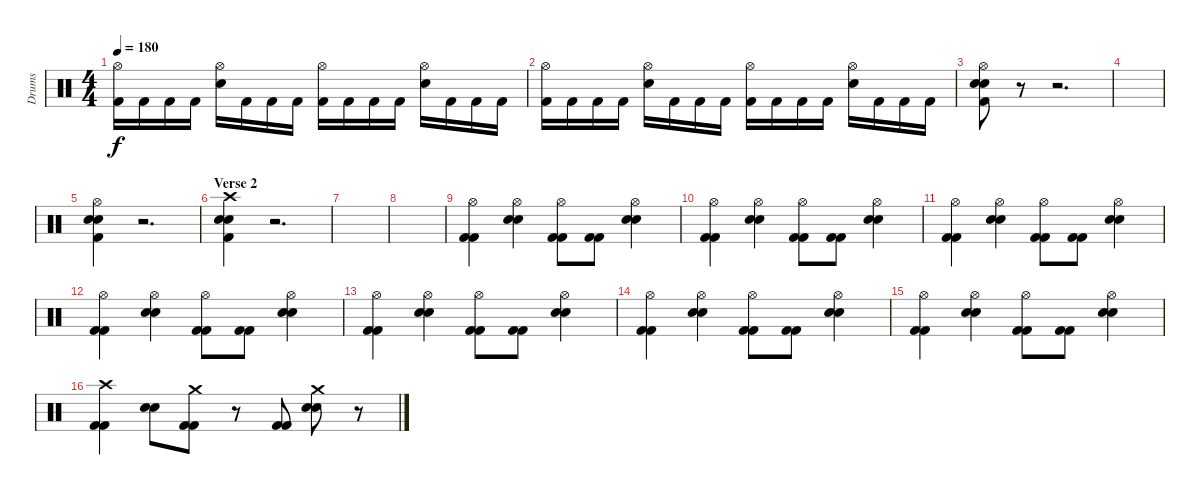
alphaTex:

\track ("Drums" "Drums") {instrument percussion}
\staff {score}
\articulation defaults
\ts (4 4)
\tempo 180
\clef neutral
\ks c
("Hi-Hat (open)" "Kick (hit) 2").16{dy f} "Kick (hit) 2".16 "Kick (hit) 2".16 "Kick (hit) 2".16 ("Hi-Hat (open)" "Snare (hit) 2").16 "Kick (hit) 2".16 "Kick (hit) 2".16 "Kick (hit) 2".16 ("Hi-Hat (open)" "Kick (hit) 2").16 "Kick (hit) 2".16 "Kick (hit) 2".16 "Kick (hit) 2".16 ("Hi-Hat (open)" "Snare (hit) 2").16 "Kick (hit) 2".16 "Kick (hit) 2".16 "Kick (hit) 2".16 |
("Hi-Hat (open)" "Kick (hit) 2").16 "Kick (hit) 2".16 "Kick (hit) 2".16 "Kick (hit) 2".16 ("Hi-Hat (open)" "Snare (hit) 2").16 "Kick (hit) 2".16 "Kick (hit) 2".16 "Kick (hit) 2".16 ("Hi-Hat (open)" "Kick (hit) 2").16 "Kick (hit) 2".16 "Kick (hit) 2".16 "Kick (hit) 2".16 ("Hi-Hat (open)" "Snare (hit) 2").16 "Kick (hit) 2".16 "Kick (hit) 2".16 "Kick (hit) 2".16 |
("Hi-Hat (open)" "Snare (hit) 2" "Snare (hit) 2" "Kick (hit) 2").8 r.8 r.2{d} |
|
("Hi-Hat (open)" "Snare (hit) 2" "Snare (hit) 2" "Kick (hit) 2").4 r.2{d} |
\section ("" "Verse 2")
("Crash high (hit)" "Snare (hit) 2" "Snare (hit) 2" "Kick (hit) 2").4 r.2{d} |
|
|
("Hi-Hat (open)" "Kick (hit) 2" "Kick (hit) 2").4 ("Hi-Hat (open)" "Snare (hit) 2" "Snare (hit) 2").4 ("Hi-Hat (open)" "Kick (hit) 2" "Kick (hit) 2").8 ("Kick (hit) 2" "Kick (hit) 2").8 ("Hi-Hat (open)" "Snare (hit) 2" "Snare (hit) 2").4 |
("Hi-Hat (open)" "Kick (hit) 2" "Kick (hit) 2").4 ("Hi-Hat (open)" "Snare (hit) 2" "Snare (hit) 2").4 ("Hi-Hat (open)" "Kick (hit) 2" "Kick (hit) 2").8 ("Kick (hit) 2" "Kick (hit) 2").8 ("Hi-Hat (open)" "Snare (hit) 2" "Snare (hit) 2").4 |
("Hi-Hat (open)" "Kick (hit) 2" "Kick (hit) 2").4 ("Hi-Hat (open)" "Snare (hit) 2" "Snare (hit) 2").4 ("Hi-Hat (open)" "Kick (hit) 2" "Kick (hit) 2").8 ("Kick (hit) 2" "Kick (hit) 2").8 ("Hi-Hat (open)" "Snare (hit) 2" "Snare (hit) 2").4 |
("Hi-Hat (open)" "Kick (hit) 2" "Kick (hit) 2").4 ("Hi-Hat (open)" "Snare (hit) 2" "Snare (hit) 2").4 ("Hi-Hat (open)" "Kick (hit) 2" "Kick (hit) 2").8 ("Kick (hit) 2" "Kick (hit) 2").8 ("Hi-Hat (open)" "Snare (hit) 2" "Snare (hit) 2").4 |
("Hi-Hat (open)" "Kick (hit) 2" "Kick (hit) 2").4 ("Hi-Hat (open)" "Snare (hit) 2" "Snare (hit) 2").4 ("Hi-Hat (open)" "Kick (hit) 2" "Kick (hit) 2").8 ("Kick (hit) 2" "Kick (hit) 2").8 ("Hi-Hat (open)" "Snare (hit) 2" "Snare (hit) 2").4 |
("Hi-Hat (open)" "Kick (hit) 2" "Kick (hit) 2").4 ("Hi-Hat (open)" "Snare (hit) 2" "Snare (hit) 2").4 ("Hi-Hat (open)" "Kick (hit) 2" "Kick (hit) 2").8 ("Kick (hit) 2" "Kick (hit) 2").8 ("Hi-Hat (open)" "Snare (hit) 2" "Snare (hit) 2").4 |
("Hi-Hat (open)" "Kick (hit) 2" "Kick (hit) 2").4 ("Hi-Hat (open)" "Snare (hit) 2" "Snare (hit) 2").4 ("Hi-Hat (open)" "Kick (hit) 2" "Kick (hit) 2").8 ("Kick (hit) 2" "Kick (hit) 2").8 ("Hi-Hat (open)" "Snare (hit) 2" "Snare (hit) 2").4 |
("Crash high (hit)" "Kick (hit) 2" "Kick (hit) 2").4 ("Snare (hit) 2" "Snare (hit) 2").8 ("Crash medium (hit)" "Kick (hit) 2" "Kick (hit) 2").8 r.8 ("Kick (hit) 2" "Kick (hit) 2").8 ("Crash medium (hit)" "Snare (hit) 2" "Snare (hit) 2").8 r.8
